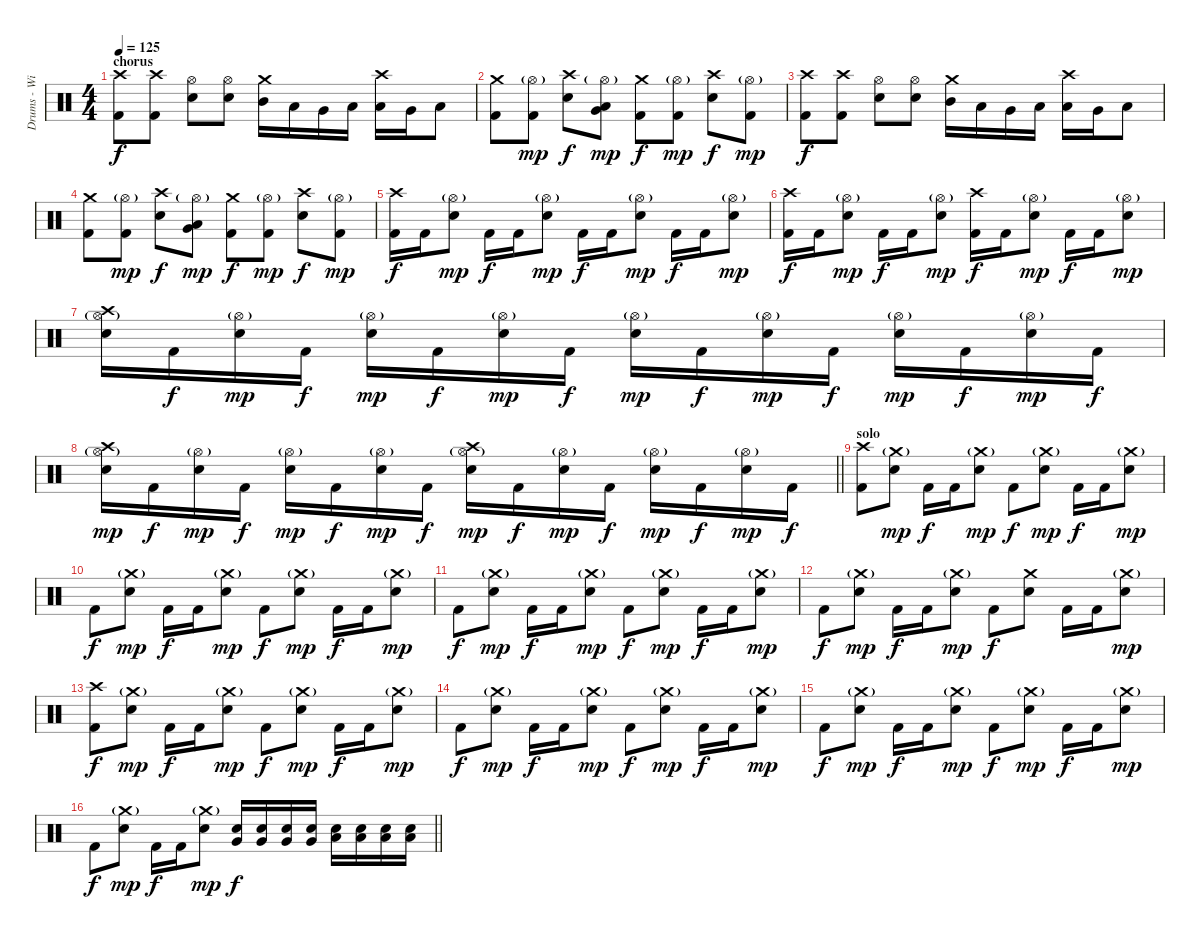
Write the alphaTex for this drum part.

\track ("Drums - Willie Buchan" "Drums - Wi") {instrument percussion}
\staff {score}
\articulation defaults
\ts (4 4)
\section ("" "chorus")
\tempo 125
\clef neutral
\ks c
("Crash high (hit)" "Kick (hit) 2").8{dy f} ("Crash high (hit)" "Kick (hit) 2").8 ("Hi-Hat (open)" "Electric Snare (hit)").8 ("Hi-Hat (open)" "Electric Snare (hit)").8 ("Crash medium (hit)" "Mid Tom (hit)").16 "Low Tom (hit)".16 "Very Low Tom (hit)".16 "Low Floor Tom (hit)".16 ("Crash high (hit)" "Low Tom (hit)").16 "Very Low Tom (hit)".16 "Low Floor Tom (hit)".8 |
("Crash medium (hit)" "Kick (hit) 2").8 ("Hi-Hat (open)"{g} "Kick (hit) 2").8{dy mp} ("Crash high (hit)" "Electric Snare (hit)").8{dy f} ("Hi-Hat (open)"{g} "Low Tom (hit)" "Very Low Tom (hit)").8{dy mp} ("Crash medium (hit)" "Kick (hit) 2").8{dy f} ("Hi-Hat (open)"{g} "Kick (hit) 2").8{dy mp} ("Crash high (hit)" "Electric Snare (hit)").8{dy f} ("Hi-Hat (open)"{g} "Kick (hit) 2").8{dy mp} |
("Crash high (hit)" "Kick (hit) 2").8{dy f} ("Crash high (hit)" "Kick (hit) 2").8 ("Hi-Hat (open)" "Electric Snare (hit)").8 ("Hi-Hat (open)" "Electric Snare (hit)").8 ("Crash medium (hit)" "Mid Tom (hit)").16 "Low Tom (hit)".16 "Very Low Tom (hit)".16 "Low Floor Tom (hit)".16 ("Crash high (hit)" "Low Tom (hit)").16 "Very Low Tom (hit)".16 "Low Floor Tom (hit)".8 |
("Crash medium (hit)" "Kick (hit) 2").8 ("Hi-Hat (open)"{g} "Kick (hit) 2").8{dy mp} ("Crash high (hit)" "Electric Snare (hit)").8{dy f} ("Hi-Hat (open)"{g} "Low Tom (hit)" "Very Low Tom (hit)").8{dy mp} ("Crash medium (hit)" "Kick (hit) 2").8{dy f} ("Hi-Hat (open)"{g} "Kick (hit) 2").8{dy mp} ("Crash high (hit)" "Electric Snare (hit)").8{dy f} ("Hi-Hat (open)"{g} "Kick (hit) 2").8{dy mp} |
("Crash high (hit)" "Kick (hit) 2").16{dy f} "Kick (hit) 2".16 ("Hi-Hat (open)"{g} "Electric Snare (hit)").8{dy mp} "Kick (hit) 2".16{dy f} "Kick (hit) 2".16 ("Hi-Hat (open)"{g} "Electric Snare (hit)").8{dy mp} "Kick (hit) 2".16{dy f} "Kick (hit) 2".16 ("Hi-Hat (open)"{g} "Electric Snare (hit)").8{dy mp} "Kick (hit) 2".16{dy f} "Kick (hit) 2".16 ("Hi-Hat (open)"{g} "Electric Snare (hit)").8{dy mp} |
("Crash high (hit)" "Kick (hit) 2").16{dy f} "Kick (hit) 2".16 ("Hi-Hat (open)"{g} "Electric Snare (hit)").8{dy mp} "Kick (hit) 2".16{dy f} "Kick (hit) 2".16 ("Hi-Hat (open)"{g} "Electric Snare (hit)").8{dy mp} ("Crash high (hit)" "Kick (hit) 2").16{dy f} "Kick (hit) 2".16 ("Hi-Hat (open)"{g} "Electric Snare (hit)").8{dy mp} "Kick (hit) 2".16{dy f} "Kick (hit) 2".16 ("Hi-Hat (open)"{g} "Electric Snare (hit)").8{dy mp} |
("Hi-Hat (open)"{g} "Crash high (hit)" "Electric Snare (hit)").16 "Kick (hit) 2".16{dy f} ("Hi-Hat (open)"{g} "Electric Snare (hit)").16{dy mp} "Kick (hit) 2".16{dy f} ("Hi-Hat (open)"{g} "Electric Snare (hit)").16{dy mp} "Kick (hit) 2".16{dy f} ("Hi-Hat (open)"{g} "Electric Snare (hit)").16{dy mp} "Kick (hit) 2".16{dy f} ("Hi-Hat (open)"{g} "Electric Snare (hit)").16{dy mp} "Kick (hit) 2".16{dy f} ("Hi-Hat (open)"{g} "Electric Snare (hit)").16{dy mp} "Kick (hit) 2".16{dy f} ("Hi-Hat (open)"{g} "Electric Snare (hit)").16{dy mp} "Kick (hit) 2".16{dy f} ("Hi-Hat (open)"{g} "Electric Snare (hit)").16{dy mp} "Kick (hit) 2".16{dy f} |
\barLineRight lightlight
("Hi-Hat (open)"{g} "Crash high (hit)" "Electric Snare (hit)").16{dy mp} "Kick (hit) 2".16{dy f} ("Hi-Hat (open)"{g} "Electric Snare (hit)").16{dy mp} "Kick (hit) 2".16{dy f} ("Hi-Hat (open)"{g} "Electric Snare (hit)").16{dy mp} "Kick (hit) 2".16{dy f} ("Hi-Hat (open)"{g} "Electric Snare (hit)").16{dy mp} "Kick (hit) 2".16{dy f} ("Hi-Hat (open)"{g} "Crash high (hit)" "Electric Snare (hit)").16{dy mp} "Kick (hit) 2".16{dy f} ("Hi-Hat (open)"{g} "Electric Snare (hit)").16{dy mp} "Kick (hit) 2".16{dy f} ("Hi-Hat (open)"{g} "Electric Snare (hit)").16{dy mp} "Kick (hit) 2".16{dy f} ("Hi-Hat (open)"{g} "Electric Snare (hit)").16{dy mp} "Kick (hit) 2".16{dy f} |
\section ("" "solo")
("Crash high (hit)" "Kick (hit) 2").8 ("Crash medium (hit)"{g} "Electric Snare (hit)").8{dy mp} "Kick (hit) 2".16{dy f} "Kick (hit) 2".16 ("Crash medium (hit)"{g} "Electric Snare (hit)").8{dy mp} "Kick (hit) 2".8{dy f} ("Crash medium (hit)"{g} "Electric Snare (hit)").8{dy mp} "Kick (hit) 2".16{dy f} "Kick (hit) 2".16 ("Crash medium (hit)"{g} "Electric Snare (hit)").8{dy mp} |
"Kick (hit) 2".8{dy f} ("Crash medium (hit)"{g} "Electric Snare (hit)").8{dy mp} "Kick (hit) 2".16{dy f} "Kick (hit) 2".16 ("Crash medium (hit)"{g} "Electric Snare (hit)").8{dy mp} "Kick (hit) 2".8{dy f} ("Crash medium (hit)"{g} "Electric Snare (hit)").8{dy mp} "Kick (hit) 2".16{dy f} "Kick (hit) 2".16 ("Crash medium (hit)"{g} "Electric Snare (hit)").8{dy mp} |
"Kick (hit) 2".8{dy f} ("Crash medium (hit)"{g} "Electric Snare (hit)").8{dy mp} "Kick (hit) 2".16{dy f} "Kick (hit) 2".16 ("Crash medium (hit)"{g} "Electric Snare (hit)").8{dy mp} "Kick (hit) 2".8{dy f} ("Crash medium (hit)"{g} "Electric Snare (hit)").8{dy mp} "Kick (hit) 2".16{dy f} "Kick (hit) 2".16 ("Crash medium (hit)"{g} "Electric Snare (hit)").8{dy mp} |
"Kick (hit) 2".8{dy f} ("Crash medium (hit)"{g} "Electric Snare (hit)").8{dy mp} "Kick (hit) 2".16{dy f} "Kick (hit) 2".16 ("Crash medium (hit)"{g} "Electric Snare (hit)").8{dy mp} "Kick (hit) 2".8{dy f} ("Crash medium (hit)" "Electric Snare (hit)").8 "Kick (hit) 2".16 "Kick (hit) 2".16 ("Crash medium (hit)"{g} "Electric Snare (hit)").8{dy mp} |
("Crash high (hit)" "Kick (hit) 2").8{dy f} ("Crash medium (hit)"{g} "Electric Snare (hit)").8{dy mp} "Kick (hit) 2".16{dy f} "Kick (hit) 2".16 ("Crash medium (hit)"{g} "Electric Snare (hit)").8{dy mp} "Kick (hit) 2".8{dy f} ("Crash medium (hit)"{g} "Electric Snare (hit)").8{dy mp} "Kick (hit) 2".16{dy f} "Kick (hit) 2".16 ("Crash medium (hit)"{g} "Electric Snare (hit)").8{dy mp} |
"Kick (hit) 2".8{dy f} ("Crash medium (hit)"{g} "Electric Snare (hit)").8{dy mp} "Kick (hit) 2".16{dy f} "Kick (hit) 2".16 ("Crash medium (hit)"{g} "Electric Snare (hit)").8{dy mp} "Kick (hit) 2".8{dy f} ("Crash medium (hit)"{g} "Electric Snare (hit)").8{dy mp} "Kick (hit) 2".16{dy f} "Kick (hit) 2".16 ("Crash medium (hit)"{g} "Electric Snare (hit)").8{dy mp} |
"Kick (hit) 2".8{dy f} ("Crash medium (hit)"{g} "Electric Snare (hit)").8{dy mp} "Kick (hit) 2".16{dy f} "Kick (hit) 2".16 ("Crash medium (hit)"{g} "Electric Snare (hit)").8{dy mp} "Kick (hit) 2".8{dy f} ("Crash medium (hit)"{g} "Electric Snare (hit)").8{dy mp} "Kick (hit) 2".16{dy f} "Kick (hit) 2".16 ("Crash medium (hit)"{g} "Electric Snare (hit)").8{dy mp} |
\barLineRight lightlight "Kick (hit) 2".8{dy f}
("Crash medium (hit)"{g} "Electric Snare (hit)").8{dy mp} "Kick (hit) 2".16{dy f} "Kick (hit) 2".16 ("Crash medium (hit)"{g} "Electric Snare (hit)").8{dy mp} ("Very Low Tom (hit)" "Electric Snare (hit)").16{dy f} ("Very Low Tom (hit)" "Electric Snare (hit)").16 ("Very Low Tom (hit)" "Electric Snare (hit)").16 ("Very Low Tom (hit)" "Electric Snare (hit)").16 ("Low Tom (hit)" "Electric Snare (hit)").16 ("Low Tom (hit)" "Electric Snare (hit)").16 ("Low Tom (hit)" "Electric Snare (hit)").16 ("Low Tom (hit)" "Electric Snare (hit)").16
